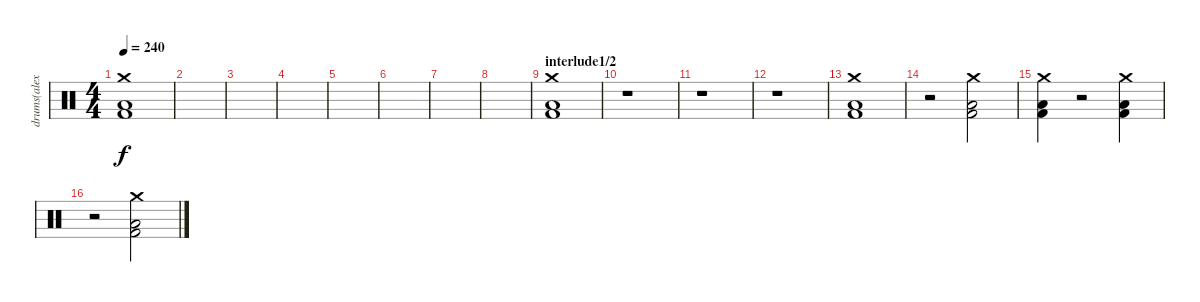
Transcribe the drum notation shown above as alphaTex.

\track ("drums(alex holzshwart)" "drums(alex") {instrument percussion}
\staff {score}
\articulation defaults
\ts (4 4)
\tempo 240
\clef neutral
\ks c
("Crash medium (hit)" "Low Floor Tom (hit)" "Kick (hit) 2").1{dy f} |
|
|
|
|
|
|
|
\section ("" "interlude1/2")
("Crash medium (hit)" "Low Floor Tom (hit)" "Kick (hit) 2").1 |
r.1 |
r.1 |
r.1 |
("Crash medium (hit)" "Low Floor Tom (hit)" "Kick (hit) 2").1 |
r.2 ("Crash medium (hit)" "Low Floor Tom (hit)" "Kick (hit) 2").2 |
("Crash medium (hit)" "Low Floor Tom (hit)" "Kick (hit) 2").4 r.2 ("Crash medium (hit)" "Low Floor Tom (hit)" "Kick (hit) 2").4 |
r.2 ("Crash medium (hit)" "Low Floor Tom (hit)" "Kick (hit) 2").2
